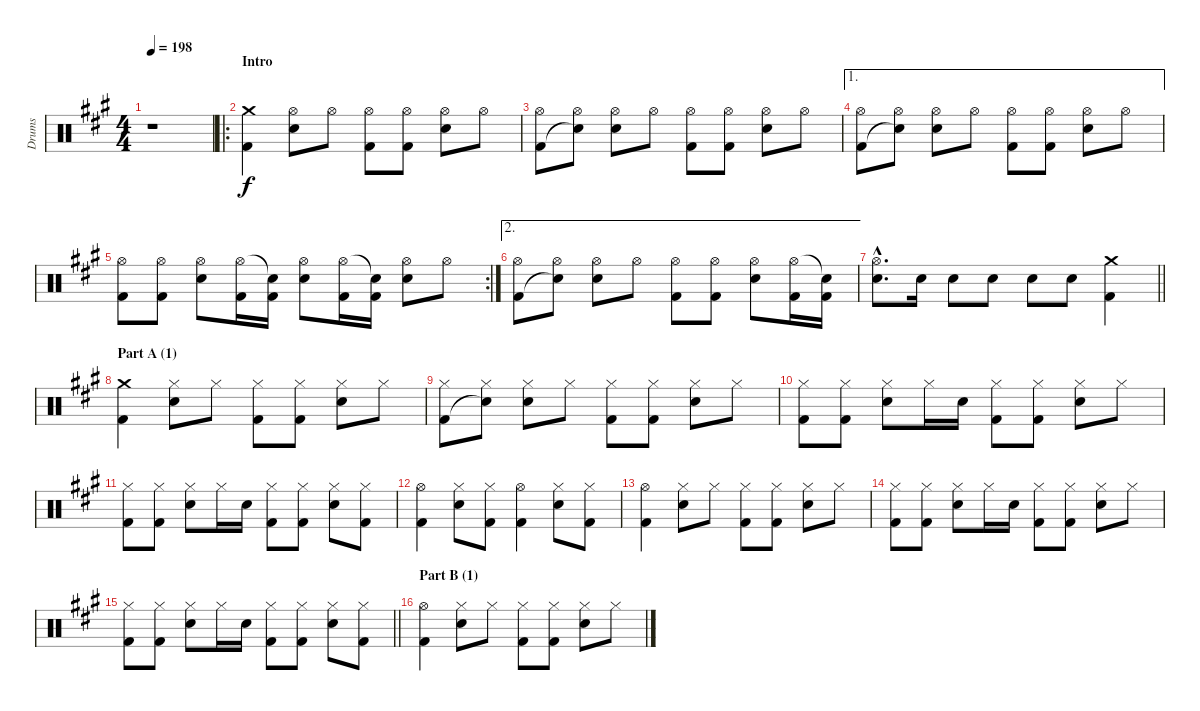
\track ("Drums" "Drums") {instrument percussion}
\staff {score}
\articulation defaults
\ts (4 4)
\tempo 198
\clef neutral
\ks a
r.1{dy f} |
\ro
\section ("" "Intro")
("Crash medium (hit)" "Kick (hit) 2").4 ("Hi-Hat (open)" "Electric Snare (hit)").8 "Hi-Hat (open)".8 ("Hi-Hat (open)" "Kick (hit) 2").8 ("Hi-Hat (open)" "Kick (hit) 2").8 ("Hi-Hat (open)" "Electric Snare (hit)").8 "Hi-Hat (open)".8 |
("Hi-Hat (open)" "Kick (hit) 2").8 ("Hi-Hat (open)" "Snare (hit)"{t}).8 ("Hi-Hat (open)" "Electric Snare (hit)").8 "Hi-Hat (open)".8 ("Hi-Hat (open)" "Kick (hit) 2").8 ("Hi-Hat (open)" "Kick (hit) 2").8 ("Hi-Hat (open)" "Electric Snare (hit)").8 "Hi-Hat (open)".8 |
\ae 1
("Hi-Hat (open)" "Kick (hit) 2").8 ("Hi-Hat (open)" "Snare (hit)"{t}).8 ("Hi-Hat (open)" "Electric Snare (hit)").8 "Hi-Hat (open)".8 ("Hi-Hat (open)" "Kick (hit) 2").8 ("Hi-Hat (open)" "Kick (hit) 2").8 ("Hi-Hat (open)" "Electric Snare (hit)").8 "Hi-Hat (open)".8 |
\rc 2
("Hi-Hat (open)" "Kick (hit) 2").8 ("Hi-Hat (open)" "Kick (hit) 2").8 ("Hi-Hat (open)" "Electric Snare (hit)").8 ("Hi-Hat (open)" "Kick (hit) 2").16 ("Snare (hit)"{t} "Kick (hit) 2").16 ("Hi-Hat (open)" "Electric Snare (hit)").8 ("Hi-Hat (open)" "Kick (hit) 2").16 ("Snare (hit)"{t} "Kick (hit) 2").16 ("Hi-Hat (open)" "Electric Snare (hit)").8 "Hi-Hat (open)".8 |
\ae 2
("Hi-Hat (open)" "Kick (hit) 2").8 ("Hi-Hat (open)" "Snare (hit)"{t}).8 ("Hi-Hat (open)" "Electric Snare (hit)").8 "Hi-Hat (open)".8 ("Hi-Hat (open)" "Kick (hit) 2").8 ("Hi-Hat (open)" "Kick (hit) 2").8 ("Hi-Hat (open)" "Electric Snare (hit)").8 ("Hi-Hat (open)" "Kick (hit) 2").16 ("Snare (hit)"{t} "Kick (hit) 2").16 |
\barLineRight lightlight
("Hi-Hat (open)"{hac} "Electric Snare (hit)"{hac}).8{d} "Electric Snare (hit)".16 "Electric Snare (hit)".8 "Electric Snare (hit)".8 "Electric Snare (hit)".8 "Electric Snare (hit)".8 ("Crash medium (hit)" "Kick (hit) 2").4 |
\section ("" "Part A (1)")
("Crash medium (hit)" "Kick (hit) 2").4 ("Hi-Hat (closed)" "Electric Snare (hit)").8 "Hi-Hat (closed)".8 ("Hi-Hat (closed)" "Kick (hit) 2").8 ("Hi-Hat (closed)" "Kick (hit) 2").8 ("Hi-Hat (closed)" "Electric Snare (hit)").8 "Hi-Hat (closed)".8 |
("Hi-Hat (closed)" "Kick (hit) 2").8 ("Hi-Hat (closed)" "Snare (hit)"{t}).8 ("Hi-Hat (closed)" "Electric Snare (hit)").8 "Hi-Hat (closed)".8 ("Hi-Hat (closed)" "Kick (hit) 2").8 ("Hi-Hat (closed)" "Kick (hit) 2").8 ("Hi-Hat (closed)" "Electric Snare (hit)").8 "Hi-Hat (closed)".8 |
("Hi-Hat (closed)" "Kick (hit) 2").8 ("Hi-Hat (closed)" "Kick (hit) 2").8 ("Hi-Hat (closed)" "Electric Snare (hit)").8 "Hi-Hat (closed)".16 "Electric Snare (hit)".16 ("Hi-Hat (closed)" "Kick (hit) 2").8 ("Hi-Hat (closed)" "Kick (hit) 2").8 ("Hi-Hat (closed)" "Electric Snare (hit)").8 "Hi-Hat (closed)".8 |
("Hi-Hat (closed)" "Kick (hit) 2").8 ("Hi-Hat (closed)" "Kick (hit) 2").8 ("Hi-Hat (closed)" "Electric Snare (hit)").8 "Hi-Hat (closed)".16 "Electric Snare (hit)".16 ("Hi-Hat (closed)" "Kick (hit) 2").8 ("Hi-Hat (closed)" "Kick (hit) 2").8 ("Hi-Hat (closed)" "Electric Snare (hit)").8 ("Hi-Hat (closed)" "Kick (hit) 2").8 |
("Hi-Hat (open)" "Kick (hit) 2").4 ("Hi-Hat (closed)" "Electric Snare (hit)").8 ("Hi-Hat (closed)" "Kick (hit) 2").8 ("Hi-Hat (open)" "Kick (hit) 2").4 ("Hi-Hat (closed)" "Electric Snare (hit)").8 ("Hi-Hat (closed)" "Kick (hit) 2").8 |
("Hi-Hat (open)" "Kick (hit) 2").4 ("Hi-Hat (closed)" "Electric Snare (hit)").8 "Hi-Hat (closed)".8 ("Hi-Hat (closed)" "Kick (hit) 2").8 ("Hi-Hat (closed)" "Kick (hit) 2").8 ("Hi-Hat (closed)" "Electric Snare (hit)").8 "Hi-Hat (closed)".8 |
("Hi-Hat (closed)" "Kick (hit) 2").8 ("Hi-Hat (closed)" "Kick (hit) 2").8 ("Hi-Hat (closed)" "Electric Snare (hit)").8 "Hi-Hat (closed)".16 "Electric Snare (hit)".16 ("Hi-Hat (closed)" "Kick (hit) 2").8 ("Hi-Hat (closed)" "Kick (hit) 2").8 ("Hi-Hat (closed)" "Electric Snare (hit)").8 "Hi-Hat (closed)".8 |
\barLineRight lightlight
("Hi-Hat (closed)" "Kick (hit) 2").8 ("Hi-Hat (closed)" "Kick (hit) 2").8 ("Hi-Hat (closed)" "Electric Snare (hit)").8 "Hi-Hat (closed)".16 "Electric Snare (hit)".16 ("Hi-Hat (closed)" "Kick (hit) 2").8 ("Hi-Hat (closed)" "Kick (hit) 2").8 ("Hi-Hat (closed)" "Electric Snare (hit)").8 ("Hi-Hat (closed)" "Kick (hit) 2").8 |
\section ("" "Part B (1)")
("Hi-Hat (open)" "Kick (hit) 2").4 ("Hi-Hat (closed)" "Electric Snare (hit)").8 "Hi-Hat (closed)".8 ("Hi-Hat (closed)" "Kick (hit) 2").8 ("Hi-Hat (closed)" "Kick (hit) 2").8 ("Hi-Hat (closed)" "Electric Snare (hit)").8 "Hi-Hat (closed)".8
